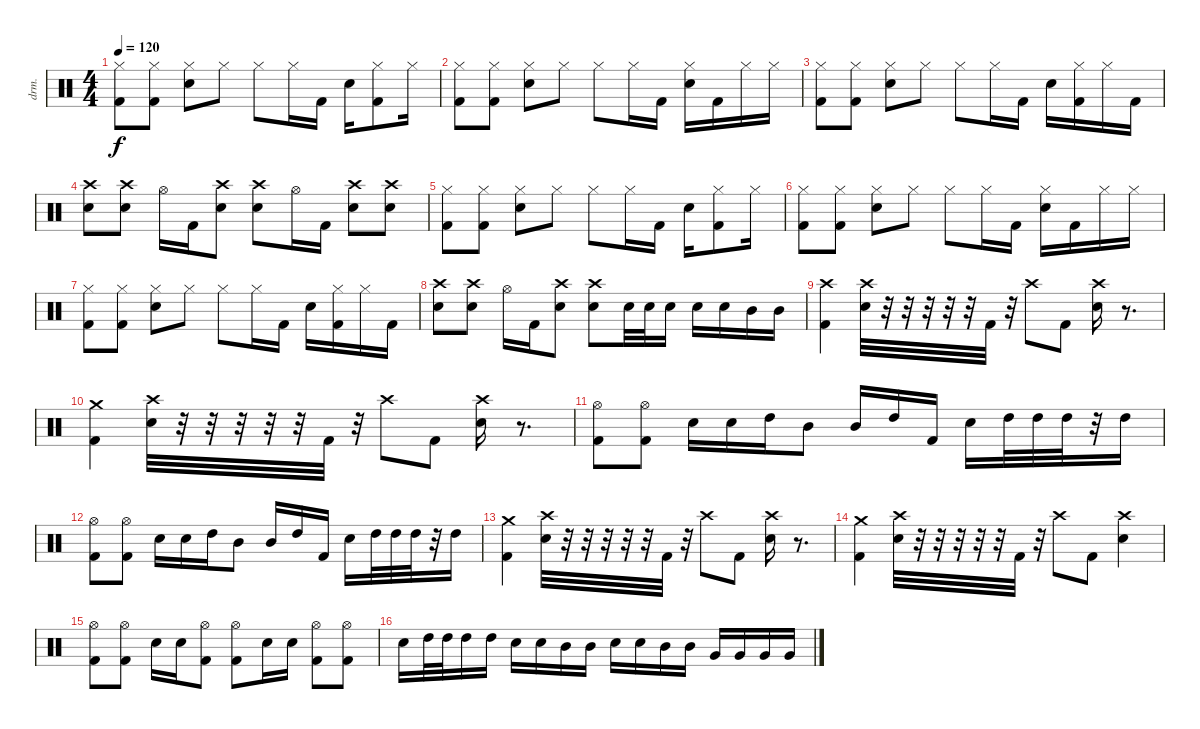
\defaultSystemsLayout 4
\bracketExtendMode groupsimilarinstruments
\otherSystemsTrackNameOrientation horizontal
\track ("Drumkit" "drm.") {instrument percussion}
\staff {score}
\articulation defaults
\ts (4 4)
\tempo 120
\clef neutral
\ks c
("Kick (hit) 2" "Hi-Hat (closed)").8{dy f beam Down} ("Kick (hit) 2" "Hi-Hat (closed)").8{beam Down} ("Hi-Hat (closed)" "Snare (hit) 2").8{beam Down} "Hi-Hat (closed)".8{beam Down} "Hi-Hat (closed)".8{beam Down} "Hi-Hat (closed)".16{beam Down} "Kick (hit) 2".16{beam Down} "Snare (hit) 2".16{beam Down} ("Hi-Hat (closed)" "Kick (hit) 2").8{beam Down} "Hi-Hat (closed)".16{beam Down} |
("Kick (hit) 2" "Hi-Hat (closed)").8{beam Down} ("Kick (hit) 2" "Hi-Hat (closed)").8{beam Down} ("Hi-Hat (closed)" "Snare (hit) 2").8{beam Down} "Hi-Hat (closed)".8{beam Down} "Hi-Hat (closed)".8{beam Down} "Hi-Hat (closed)".16{beam Down} "Kick (hit) 2".16{beam Down} ("Hi-Hat (closed)" "Snare (hit) 2").16{beam Down} "Kick (hit) 2".16{beam Down} "Hi-Hat (closed)".16{beam Down} "Hi-Hat (closed)".16{beam Down} |
("Kick (hit) 2" "Hi-Hat (closed)").8{beam Down} ("Kick (hit) 2" "Hi-Hat (closed)").8{beam Down} ("Hi-Hat (closed)" "Snare (hit) 2").8{beam Down} "Hi-Hat (closed)".8{beam Down} "Hi-Hat (closed)".8{beam Down} "Hi-Hat (closed)".16{beam Down} "Kick (hit) 2".16{beam Down} "Snare (hit) 2".16{beam Down} ("Hi-Hat (closed)" "Kick (hit) 2").16{beam Down} "Hi-Hat (closed)".16{beam Down} "Kick (hit) 2".16{beam Down} |
("Crash high (hit)" "Snare (hit) 2").8{beam Down} ("Crash high (hit)" "Snare (hit) 2").8{beam Down} "Hi-Hat (open)".16{beam Down} "Kick (hit) 2".16{beam Down} ("Snare (hit) 2" "Crash high (hit)").8{beam Down} ("Crash high (hit)" "Snare (hit) 2").8{beam Down} "Hi-Hat (open)".16{beam Down} "Kick (hit) 2".16{beam Down} ("Crash high (hit)" "Snare (hit) 2").8{beam Down} ("Crash high (hit)" "Snare (hit) 2").8{beam Down} |
("Kick (hit) 2" "Hi-Hat (closed)").8{beam Down} ("Kick (hit) 2" "Hi-Hat (closed)").8{beam Down} ("Hi-Hat (closed)" "Snare (hit) 2").8{beam Down} "Hi-Hat (closed)".8{beam Down} "Hi-Hat (closed)".8{beam Down} "Hi-Hat (closed)".16{beam Down} "Kick (hit) 2".16{beam Down} "Snare (hit) 2".16{beam Down} ("Hi-Hat (closed)" "Kick (hit) 2").8{beam Down} "Hi-Hat (closed)".16{beam Down} |
("Kick (hit) 2" "Hi-Hat (closed)").8{beam Down} ("Kick (hit) 2" "Hi-Hat (closed)").8{beam Down} ("Hi-Hat (closed)" "Snare (hit) 2").8{beam Down} "Hi-Hat (closed)".8{beam Down} "Hi-Hat (closed)".8{beam Down} "Hi-Hat (closed)".16{beam Down} "Kick (hit) 2".16{beam Down} ("Hi-Hat (closed)" "Snare (hit) 2").16{beam Down} "Kick (hit) 2".16{beam Down} "Hi-Hat (closed)".16{beam Down} "Hi-Hat (closed)".16{beam Down} |
("Kick (hit) 2" "Hi-Hat (closed)").8{beam Down} ("Kick (hit) 2" "Hi-Hat (closed)").8{beam Down} ("Hi-Hat (closed)" "Snare (hit) 2").8{beam Down} "Hi-Hat (closed)".8{beam Down} "Hi-Hat (closed)".8{beam Down} "Hi-Hat (closed)".16{beam Down} "Kick (hit) 2".16{beam Down} "Snare (hit) 2".16{beam Down} ("Hi-Hat (closed)" "Kick (hit) 2").16{beam Down} "Hi-Hat (closed)".16{beam Down} "Kick (hit) 2".16{beam Down} |
("Crash high (hit)" "Snare (hit) 2").8{beam Down} ("Crash high (hit)" "Snare (hit) 2").8{beam Down} "Hi-Hat (open)".16{beam Down} "Kick (hit) 2".16{beam Down} ("Snare (hit) 2" "Crash high (hit)").8{beam Down} ("Crash high (hit)" "Snare (hit) 2").8{beam Down} "Snare (hit) 2".32{beam Down} "Snare (hit) 2".32{beam Down} "Snare (hit) 2".16{beam Down} "Snare (hit) 2".16{beam Down} "Snare (hit) 2".16{beam Down} "Mid Tom (hit)".16{beam Down} "Mid Tom (hit)".16{beam Down} |
("Crash high (hit)" "Kick (hit) 2").4{beam Down} ("Crash high (hit)" "Snare (hit) 2").32{beam Down} r.32{beam Down} r.32{beam Down} r.32{beam Down} r.32{beam Down} r.32{beam Down} "Kick (hit) 2".32{beam Down} r.32{beam Down} "Crash high (hit)".8{beam Down} "Kick (hit) 2".8{beam Down} ("Crash high (hit)" "Snare (hit) 2").16{beam Down} r.8{d beam Down} |
("Crash medium (hit)" "Kick (hit) 2").4{beam Down} ("Crash high (hit)" "Snare (hit) 2").32{beam Down} r.32{beam Down} r.32{beam Down} r.32{beam Down} r.32{beam Down} r.32{beam Down} "Kick (hit) 2".32{beam Down} r.32{beam Down} "Crash high (hit)".8{beam Down} "Kick (hit) 2".8{beam Down} ("Crash high (hit)" "Snare (hit) 2").16{beam Down} r.8{d beam Down} |
("Kick (hit) 2" "Hi-Hat (open)").8{beam Down} ("Hi-Hat (open)" "Kick (hit) 2").8{beam Down} "Snare (hit) 2".16{beam Down} "Snare (hit) 2".16{beam Down} "High Tom (hit)".16{beam Down} "Mid Tom (hit)".8{beam Down} "Mid Tom (hit)".16{beam Up} "High Tom (hit)".16{beam Up} "Kick (hit) 2".16{beam Up} "Snare (hit) 2".16{beam Down} "High Tom (hit)".32{beam Down} "High Tom (hit)".32{beam Down} "High Tom (hit)".32{beam Down} r.32{beam Down} "High Tom (hit)".16{beam Down} |
("Kick (hit) 2" "Hi-Hat (open)").8{beam Down} ("Hi-Hat (open)" "Kick (hit) 2").8{beam Down} "Snare (hit) 2".16{beam Down} "Snare (hit) 2".16{beam Down} "High Tom (hit)".16{beam Down} "Mid Tom (hit)".8{beam Down} "Mid Tom (hit)".16{beam Up} "High Tom (hit)".16{beam Up} "Kick (hit) 2".16{beam Up} "Snare (hit) 2".16{beam Down} "High Tom (hit)".32{beam Down} "High Tom (hit)".32{beam Down} "High Tom (hit)".32{beam Down} r.32{beam Down} "High Tom (hit)".16{beam Down} |
("Crash medium (hit)" "Kick (hit) 2").4{beam Down} ("Crash high (hit)" "Snare (hit) 2").32{beam Down} r.32{beam Down} r.32{beam Down} r.32{beam Down} r.32{beam Down} r.32{beam Down} "Kick (hit) 2".32{beam Down} r.32{beam Down} "Crash high (hit)".8{beam Down} "Kick (hit) 2".8{beam Down} ("Crash high (hit)" "Snare (hit) 2").16{beam Down} r.8{d beam Down} |
("Crash medium (hit)" "Kick (hit) 2").4{beam Down} ("Crash high (hit)" "Snare (hit) 2").32{beam Down} r.32{beam Down} r.32{beam Down} r.32{beam Down} r.32{beam Down} r.32{beam Down} "Kick (hit) 2".32{beam Down} r.32{beam Down} "Crash high (hit)".8{beam Down} "Kick (hit) 2".8{beam Down} ("Crash high (hit)" "Snare (hit) 2").4{beam Down} |
("Hi-Hat (open)" "Kick (hit) 2").8{beam Down} ("Hi-Hat (open)" "Kick (hit) 2").8{beam Down} "Snare (hit) 2".16{beam Down} "Snare (hit) 2".16{beam Down} ("Hi-Hat (open)" "Kick (hit) 2").8{beam Down} ("Hi-Hat (open)" "Kick (hit) 2").8{beam Down} "Snare (hit) 2".16{beam Down} "Snare (hit) 2".16{beam Down} ("Hi-Hat (open)" "Kick (hit) 2").8{beam Down} ("Hi-Hat (open)" "Kick (hit) 2").8{beam Down} |
"Snare (hit) 2".16{beam Down} "High Tom (hit)".32{beam Down} "High Tom (hit)".32{beam Down} "High Tom (hit)".16{beam Down} "High Tom (hit)".16{beam Down} "Snare (hit) 2".16{beam Down} "Snare (hit) 2".16{beam Down} "Mid Tom (hit)".16{beam Down} "Mid Tom (hit)".16{beam Down} "Snare (hit) 2".16{beam Down} "Snare (hit) 2".16{beam Down} "Mid Tom (hit)".16{beam Down} "Mid Tom (hit)".16{beam Down} "Very Low Tom (hit)".16{beam Up} "Very Low Tom (hit)".16{beam Up} "Very Low Tom (hit)".16{beam Up} "Very Low Tom (hit)".16{beam Up}
